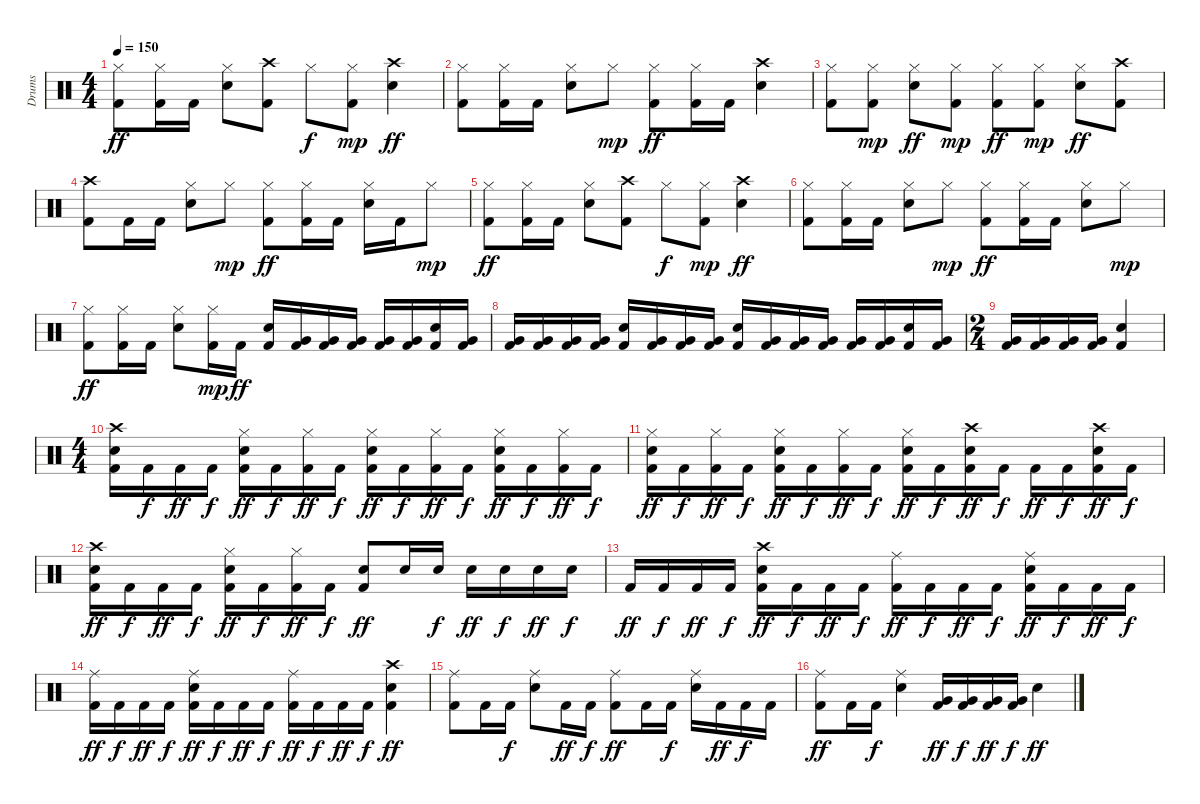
\track ("Drums" "Drums") {instrument percussion}
\staff {score}
\articulation defaults
\ts (4 4)
\tempo 150
\clef neutral
\ks c
("Hi-Hat (closed)" "Kick (hit) 2").8{dy ff} ("Hi-Hat (closed)" "Kick (hit) 2").16 "Kick (hit) 2".16 ("Hi-Hat (closed)" "Snare (hit) 2").8 ("Crash high (hit)" "Kick (hit) 2").8 "Hi-Hat (closed)".8{dy f} ("Kick (hit) 2" "Hi-Hat (closed)").8{dy mp} ("Snare (hit) 2" "Crash high (hit)").4{dy ff} |
("Hi-Hat (closed)" "Kick (hit) 2").8 ("Hi-Hat (closed)" "Kick (hit) 2").16 "Kick (hit) 2".16 ("Hi-Hat (closed)" "Snare (hit) 2").8 "Hi-Hat (closed)".8{dy mp} ("Hi-Hat (closed)" "Kick (hit) 2").8{dy ff} ("Hi-Hat (closed)" "Kick (hit) 2").16 "Kick (hit) 2".16 ("Snare (hit) 2" "Crash high (hit)").4 |
("Hi-Hat (closed)" "Kick (hit) 2").8 ("Kick (hit) 2" "Hi-Hat (closed)").8{dy mp} ("Hi-Hat (closed)" "Snare (hit) 2").8{dy ff} ("Kick (hit) 2" "Hi-Hat (closed)").8{dy mp} ("Hi-Hat (closed)" "Kick (hit) 2").8{dy ff} ("Kick (hit) 2" "Hi-Hat (closed)").8{dy mp} ("Hi-Hat (closed)" "Snare (hit) 2").8{dy ff} ("Kick (hit) 2" "Crash high (hit)").8 |
("Crash high (hit)" "Kick (hit) 2").8 "Kick (hit) 2".16 "Kick (hit) 2".16 ("Hi-Hat (closed)" "Snare (hit) 2").8 "Hi-Hat (closed)".8{dy mp} ("Hi-Hat (closed)" "Kick (hit) 2").8{dy ff} ("Hi-Hat (closed)" "Kick (hit) 2").16 "Kick (hit) 2".16 ("Hi-Hat (closed)" "Snare (hit) 2").16 "Kick (hit) 2".16 "Hi-Hat (closed)".8{dy mp} |
("Hi-Hat (closed)" "Kick (hit) 2").8{dy ff} ("Hi-Hat (closed)" "Kick (hit) 2").16 "Kick (hit) 2".16 ("Hi-Hat (closed)" "Snare (hit) 2").8 ("Crash high (hit)" "Kick (hit) 2").8 "Hi-Hat (closed)".8{dy f} ("Kick (hit) 2" "Hi-Hat (closed)").8{dy mp} ("Snare (hit) 2" "Crash high (hit)").4{dy ff} |
("Hi-Hat (closed)" "Kick (hit) 2").8 ("Hi-Hat (closed)" "Kick (hit) 2").16 "Kick (hit) 2".16 ("Hi-Hat (closed)" "Snare (hit) 2").8 "Hi-Hat (closed)".8{dy mp} ("Hi-Hat (closed)" "Kick (hit) 2").8{dy ff} ("Hi-Hat (closed)" "Kick (hit) 2").16 "Kick (hit) 2".16 ("Hi-Hat (closed)" "Snare (hit) 2").8 "Hi-Hat (closed)".8{dy mp} |
("Hi-Hat (closed)" "Kick (hit) 2").8{dy ff} ("Hi-Hat (closed)" "Kick (hit) 2").16 "Kick (hit) 2".16 ("Hi-Hat (closed)" "Snare (hit) 2").8 ("Kick (hit) 2" "Hi-Hat (closed)").16{dy mp} "Kick (hit) 2".16{dy ff} ("Snare (hit) 2" "Kick (hit) 2").16 ("Very Low Tom (hit)" "Kick (hit) 2").16 ("Very Low Tom (hit)" "Kick (hit) 2").16 ("Very Low Tom (hit)" "Kick (hit) 2").16 ("Kick (hit) 2" "Very Low Tom (hit)").16 ("Kick (hit) 2" "Very Low Tom (hit)").16 ("Snare (hit) 2" "Kick (hit) 2").16 ("Kick (hit) 2" "Very Low Tom (hit)").16 |
("Kick (hit) 2" "Very Low Tom (hit)").16 ("Kick (hit) 2" "Very Low Tom (hit)").16 ("Kick (hit) 2" "Very Low Tom (hit)").16 ("Kick (hit) 2" "Very Low Tom (hit)").16 ("Kick (hit) 2" "Snare (hit) 2").16 ("Kick (hit) 2" "Very Low Tom (hit)").16 ("Kick (hit) 2" "Very Low Tom (hit)").16 ("Kick (hit) 2" "Very Low Tom (hit)").16 ("Snare (hit) 2" "Kick (hit) 2").16 ("Very Low Tom (hit)" "Kick (hit) 2").16 ("Very Low Tom (hit)" "Kick (hit) 2").16 ("Very Low Tom (hit)" "Kick (hit) 2").16 ("Kick (hit) 2" "Very Low Tom (hit)").16 ("Kick (hit) 2" "Very Low Tom (hit)").16 ("Snare (hit) 2" "Kick (hit) 2").16 ("Kick (hit) 2" "Very Low Tom (hit)").16 |
\ts (2 4)
("Kick (hit) 2" "Very Low Tom (hit)").16 ("Kick (hit) 2" "Very Low Tom (hit)").16 ("Kick (hit) 2" "Very Low Tom (hit)").16 ("Kick (hit) 2" "Very Low Tom (hit)").16 ("Kick (hit) 2" "Snare (hit) 2").4 |
\ts (4 4)
("Kick (hit) 2" "Crash high (hit)" "Snare (hit) 2").16 "Kick (hit) 2".16{dy f} "Kick (hit) 2".16{dy ff} "Kick (hit) 2".16{dy f} ("Kick (hit) 2" "Hi-Hat (closed)" "Snare (hit) 2").16{dy ff} "Kick (hit) 2".16{dy f} ("Hi-Hat (closed)" "Kick (hit) 2").16{dy ff} "Kick (hit) 2".16{dy f} ("Kick (hit) 2" "Hi-Hat (closed)" "Snare (hit) 2").16{dy ff} "Kick (hit) 2".16{dy f} ("Hi-Hat (closed)" "Kick (hit) 2").16{dy ff} "Kick (hit) 2".16{dy f} ("Kick (hit) 2" "Hi-Hat (closed)" "Snare (hit) 2").16{dy ff} "Kick (hit) 2".16{dy f} ("Hi-Hat (closed)" "Kick (hit) 2").16{dy ff} "Kick (hit) 2".16{dy f} |
("Kick (hit) 2" "Hi-Hat (closed)" "Snare (hit) 2").16{dy ff} "Kick (hit) 2".16{dy f} ("Hi-Hat (closed)" "Kick (hit) 2").16{dy ff} "Kick (hit) 2".16{dy f} ("Kick (hit) 2" "Hi-Hat (closed)" "Snare (hit) 2").16{dy ff} "Kick (hit) 2".16{dy f} ("Hi-Hat (closed)" "Kick (hit) 2").16{dy ff} "Kick (hit) 2".16{dy f} ("Kick (hit) 2" "Hi-Hat (closed)" "Snare (hit) 2").16{dy ff} "Kick (hit) 2".16{dy f} ("Kick (hit) 2" "Snare (hit) 2" "Crash high (hit)").16{dy ff} "Kick (hit) 2".16{dy f} "Kick (hit) 2".16{dy ff} "Kick (hit) 2".16{dy f} ("Kick (hit) 2" "Snare (hit) 2" "Crash high (hit)").16{dy ff} "Kick (hit) 2".16{dy f} |
("Kick (hit) 2" "Crash high (hit)" "Snare (hit) 2").16{dy ff} "Kick (hit) 2".16{dy f} "Kick (hit) 2".16{dy ff} "Kick (hit) 2".16{dy f} ("Kick (hit) 2" "Hi-Hat (closed)" "Snare (hit) 2").16{dy ff} "Kick (hit) 2".16{dy f} ("Hi-Hat (closed)" "Kick (hit) 2").16{dy ff} "Kick (hit) 2".16{dy f} ("Kick (hit) 2" "Snare (hit) 2").8{dy ff} "Snare (hit) 2".16 "Snare (hit) 2".16{dy f} "Snare (hit) 2".16{dy ff} "Snare (hit) 2".16{dy f} "Snare (hit) 2".16{dy ff} "Snare (hit) 2".16{dy f} |
"Kick (hit) 2".16{dy ff} "Kick (hit) 2".16{dy f} "Kick (hit) 2".16{dy ff} "Kick (hit) 2".16{dy f} ("Kick (hit) 2" "Crash high (hit)" "Snare (hit) 2").16{dy ff} "Kick (hit) 2".16{dy f} "Kick (hit) 2".16{dy ff} "Kick (hit) 2".16{dy f} ("Ride (middle)" "Kick (hit) 2").16{dy ff} "Kick (hit) 2".16{dy f} "Kick (hit) 2".16{dy ff} "Kick (hit) 2".16{dy f} ("Kick (hit) 2" "Snare (hit) 2" "Ride (middle)").16{dy ff} "Kick (hit) 2".16{dy f} "Kick (hit) 2".16{dy ff} "Kick (hit) 2".16{dy f} |
("Ride (middle)" "Kick (hit) 2").16{dy ff} "Kick (hit) 2".16{dy f} "Kick (hit) 2".16{dy ff} "Kick (hit) 2".16{dy f} ("Kick (hit) 2" "Snare (hit) 2" "Ride (middle)").16{dy ff} "Kick (hit) 2".16{dy f} "Kick (hit) 2".16{dy ff} "Kick (hit) 2".16{dy f} ("Ride (middle)" "Kick (hit) 2").16{dy ff} "Kick (hit) 2".16{dy f} "Kick (hit) 2".16{dy ff} "Kick (hit) 2".16{dy f} ("Kick (hit) 2" "Crash high (hit)" "Snare (hit) 2").4{dy ff} |
("Ride (middle)" "Kick (hit) 2").8 "Kick (hit) 2".16 "Kick (hit) 2".16{dy f} ("Snare (hit) 2" "Ride (middle)").8 "Kick (hit) 2".16{dy ff} "Kick (hit) 2".16{dy f} ("Ride (middle)" "Kick (hit) 2").8{dy ff} "Kick (hit) 2".16 "Kick (hit) 2".16{dy f} ("Snare (hit) 2" "Ride (middle)").16 "Kick (hit) 2".16{dy ff} "Kick (hit) 2".16{dy f} "Kick (hit) 2".16 |
("Ride (middle)" "Kick (hit) 2").8{dy ff} "Kick (hit) 2".16 "Kick (hit) 2".16{dy f} ("Snare (hit) 2" "Ride (middle)").4 ("Very Low Tom (hit)" "Kick (hit) 2").16{dy ff} ("Kick (hit) 2" "Very Low Tom (hit)").16{dy f} ("Very Low Tom (hit)" "Kick (hit) 2").16{dy ff} ("Kick (hit) 2" "Very Low Tom (hit)").16{dy f} "Snare (hit) 2".4{dy ff}
